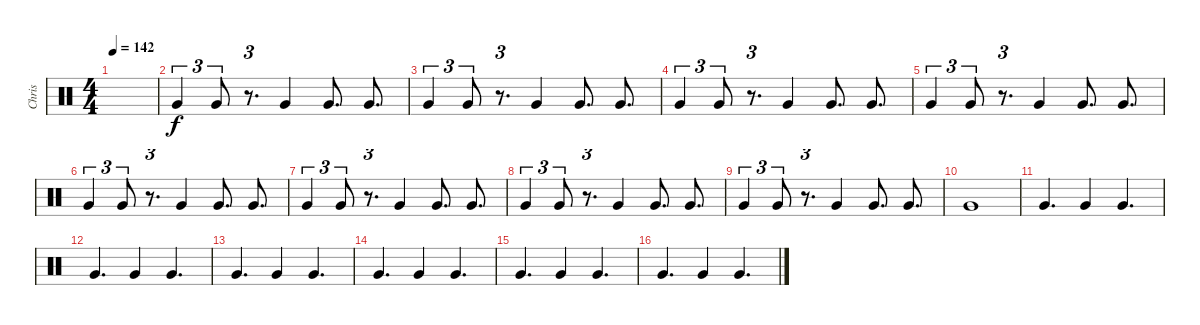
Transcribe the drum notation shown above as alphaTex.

\track ("Chris" "Chris") {instrument percussion}
\staff {score}
\articulation defaults
\ts (4 4)
\tempo 142
\clef neutral
\ks c
|
"Very Low Tom (hit)".4{tu (3 2)} "Very Low Tom (hit)".8{tu (3 2)} r.8{d tu (3 2)} "Very Low Tom (hit)".4 "Very Low Tom (hit)".8{d} "Very Low Tom (hit)".8{d} |
"Very Low Tom (hit)".4{tu (3 2)} "Very Low Tom (hit)".8{tu (3 2)} r.8{d tu (3 2)} "Very Low Tom (hit)".4 "Very Low Tom (hit)".8{d} "Very Low Tom (hit)".8{d} |
"Very Low Tom (hit)".4{tu (3 2)} "Very Low Tom (hit)".8{tu (3 2)} r.8{d tu (3 2)} "Very Low Tom (hit)".4 "Very Low Tom (hit)".8{d} "Very Low Tom (hit)".8{d} |
"Very Low Tom (hit)".4{tu (3 2)} "Very Low Tom (hit)".8{tu (3 2)} r.8{d tu (3 2)} "Very Low Tom (hit)".4 "Very Low Tom (hit)".8{d} "Very Low Tom (hit)".8{d} |
"Very Low Tom (hit)".4{tu (3 2)} "Very Low Tom (hit)".8{tu (3 2)} r.8{d tu (3 2)} "Very Low Tom (hit)".4 "Very Low Tom (hit)".8{d} "Very Low Tom (hit)".8{d} |
"Very Low Tom (hit)".4{tu (3 2)} "Very Low Tom (hit)".8{tu (3 2)} r.8{d tu (3 2)} "Very Low Tom (hit)".4 "Very Low Tom (hit)".8{d} "Very Low Tom (hit)".8{d} |
"Very Low Tom (hit)".4{tu (3 2)} "Very Low Tom (hit)".8{tu (3 2)} r.8{d tu (3 2)} "Very Low Tom (hit)".4 "Very Low Tom (hit)".8{d} "Very Low Tom (hit)".8{d} |
"Very Low Tom (hit)".4{tu (3 2)} "Very Low Tom (hit)".8{tu (3 2)} r.8{d tu (3 2)} "Very Low Tom (hit)".4 "Very Low Tom (hit)".8{d} "Very Low Tom (hit)".8{d} |
"Very Low Tom (hit)".1 |
"Very Low Tom (hit)".4{d} "Very Low Tom (hit)".4 "Very Low Tom (hit)".4{d} |
"Very Low Tom (hit)".4{d} "Very Low Tom (hit)".4 "Very Low Tom (hit)".4{d} |
"Very Low Tom (hit)".4{d} "Very Low Tom (hit)".4 "Very Low Tom (hit)".4{d} |
"Very Low Tom (hit)".4{d} "Very Low Tom (hit)".4 "Very Low Tom (hit)".4{d} |
"Very Low Tom (hit)".4{d} "Very Low Tom (hit)".4 "Very Low Tom (hit)".4{d} |
"Very Low Tom (hit)".4{d} "Very Low Tom (hit)".4 "Very Low Tom (hit)".4{d}
